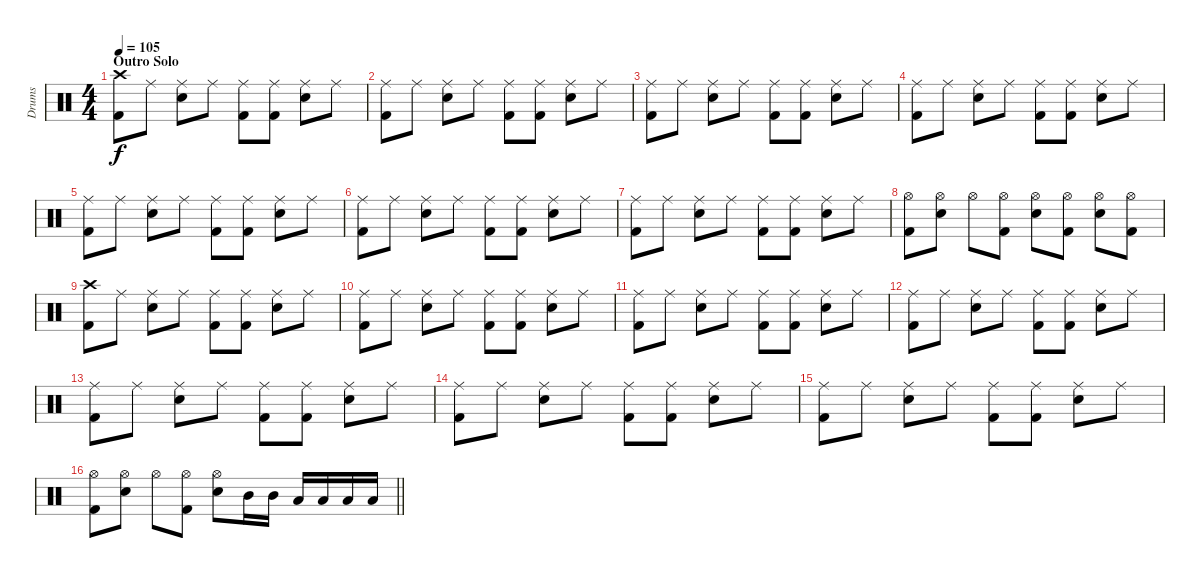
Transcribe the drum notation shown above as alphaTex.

\track ("Drums" "Drums") {instrument percussion}
\staff {score}
\articulation defaults
\ts (4 4)
\section ("" "Outro Solo")
\tempo 105
\clef neutral
\ks c
("Crash high (hit)" "Kick (hit) 2").8{dy f} "Ride (middle)".8 ("Ride (middle)" "Electric Snare (hit)").8 "Ride (middle)".8 ("Ride (middle)" "Kick (hit) 2").8 ("Ride (middle)" "Kick (hit) 2").8 ("Ride (middle)" "Electric Snare (hit)").8 "Ride (middle)".8 |
("Ride (middle)" "Kick (hit) 2").8 "Ride (middle)".8 ("Ride (middle)" "Electric Snare (hit)").8 "Ride (middle)".8 ("Ride (middle)" "Kick (hit) 2").8 ("Ride (middle)" "Kick (hit) 2").8 ("Ride (middle)" "Electric Snare (hit)").8 "Ride (middle)".8 |
("Ride (middle)" "Kick (hit) 2").8 "Ride (middle)".8 ("Ride (middle)" "Electric Snare (hit)").8 "Ride (middle)".8 ("Ride (middle)" "Kick (hit) 2").8 ("Ride (middle)" "Kick (hit) 2").8 ("Ride (middle)" "Electric Snare (hit)").8 "Ride (middle)".8 |
("Ride (middle)" "Kick (hit) 2").8 "Ride (middle)".8 ("Ride (middle)" "Electric Snare (hit)").8 "Ride (middle)".8 ("Ride (middle)" "Kick (hit) 2").8 ("Ride (middle)" "Kick (hit) 2").8 ("Ride (middle)" "Electric Snare (hit)").8 "Ride (middle)".8 |
("Ride (middle)" "Kick (hit) 2").8 "Ride (middle)".8 ("Ride (middle)" "Electric Snare (hit)").8 "Ride (middle)".8 ("Ride (middle)" "Kick (hit) 2").8 ("Ride (middle)" "Kick (hit) 2").8 ("Ride (middle)" "Electric Snare (hit)").8 "Ride (middle)".8 |
("Ride (middle)" "Kick (hit) 2").8 "Ride (middle)".8 ("Ride (middle)" "Electric Snare (hit)").8 "Ride (middle)".8 ("Ride (middle)" "Kick (hit) 2").8 ("Ride (middle)" "Kick (hit) 2").8 ("Ride (middle)" "Electric Snare (hit)").8 "Ride (middle)".8 |
("Ride (middle)" "Kick (hit) 2").8 "Ride (middle)".8 ("Ride (middle)" "Electric Snare (hit)").8 "Ride (middle)".8 ("Ride (middle)" "Kick (hit) 2").8 ("Ride (middle)" "Kick (hit) 2").8 ("Ride (middle)" "Electric Snare (hit)").8 "Ride (middle)".8 |
("Hi-Hat (open)" "Kick (hit) 2").8 ("Hi-Hat (open)" "Electric Snare (hit)").8 "Hi-Hat (open)".8 ("Hi-Hat (open)" "Kick (hit) 2").8 ("Hi-Hat (open)" "Electric Snare (hit)").8 ("Hi-Hat (open)" "Kick (hit) 2").8 ("Hi-Hat (open)" "Electric Snare (hit)").8 ("Hi-Hat (open)" "Kick (hit) 2").8 |
("Crash high (hit)" "Kick (hit) 2").8 "Ride (middle)".8 ("Ride (middle)" "Electric Snare (hit)").8 "Ride (middle)".8 ("Ride (middle)" "Kick (hit) 2").8 ("Ride (middle)" "Kick (hit) 2").8 ("Ride (middle)" "Electric Snare (hit)").8 "Ride (middle)".8 |
("Ride (middle)" "Kick (hit) 2").8 "Ride (middle)".8 ("Ride (middle)" "Electric Snare (hit)").8 "Ride (middle)".8 ("Ride (middle)" "Kick (hit) 2").8 ("Ride (middle)" "Kick (hit) 2").8 ("Ride (middle)" "Electric Snare (hit)").8 "Ride (middle)".8 |
("Ride (middle)" "Kick (hit) 2").8 "Ride (middle)".8 ("Ride (middle)" "Electric Snare (hit)").8 "Ride (middle)".8 ("Ride (middle)" "Kick (hit) 2").8 ("Ride (middle)" "Kick (hit) 2").8 ("Ride (middle)" "Electric Snare (hit)").8 "Ride (middle)".8 |
("Ride (middle)" "Kick (hit) 2").8 "Ride (middle)".8 ("Ride (middle)" "Electric Snare (hit)").8 "Ride (middle)".8 ("Ride (middle)" "Kick (hit) 2").8 ("Ride (middle)" "Kick (hit) 2").8 ("Ride (middle)" "Electric Snare (hit)").8 "Ride (middle)".8 |
("Ride (middle)" "Kick (hit) 2").8 "Ride (middle)".8 ("Ride (middle)" "Electric Snare (hit)").8 "Ride (middle)".8 ("Ride (middle)" "Kick (hit) 2").8 ("Ride (middle)" "Kick (hit) 2").8 ("Ride (middle)" "Electric Snare (hit)").8 "Ride (middle)".8 |
("Ride (middle)" "Kick (hit) 2").8 "Ride (middle)".8 ("Ride (middle)" "Electric Snare (hit)").8 "Ride (middle)".8 ("Ride (middle)" "Kick (hit) 2").8 ("Ride (middle)" "Kick (hit) 2").8 ("Ride (middle)" "Electric Snare (hit)").8 "Ride (middle)".8 |
("Ride (middle)" "Kick (hit) 2").8 "Ride (middle)".8 ("Ride (middle)" "Electric Snare (hit)").8 "Ride (middle)".8 ("Ride (middle)" "Kick (hit) 2").8 ("Ride (middle)" "Kick (hit) 2").8 ("Ride (middle)" "Electric Snare (hit)").8 "Ride (middle)".8 |
\barLineRight lightlight
("Hi-Hat (open)" "Kick (hit) 2").8 ("Hi-Hat (open)" "Electric Snare (hit)").8 "Hi-Hat (open)".8 ("Hi-Hat (open)" "Kick (hit) 2").8 ("Hi-Hat (open)" "Electric Snare (hit)").8 "Mid Tom (hit)".16 "Mid Tom (hit)".16 "Low Tom (hit)".16 "Low Tom (hit)".16 "Low Tom (hit)".16 "Low Floor Tom (hit)".16
